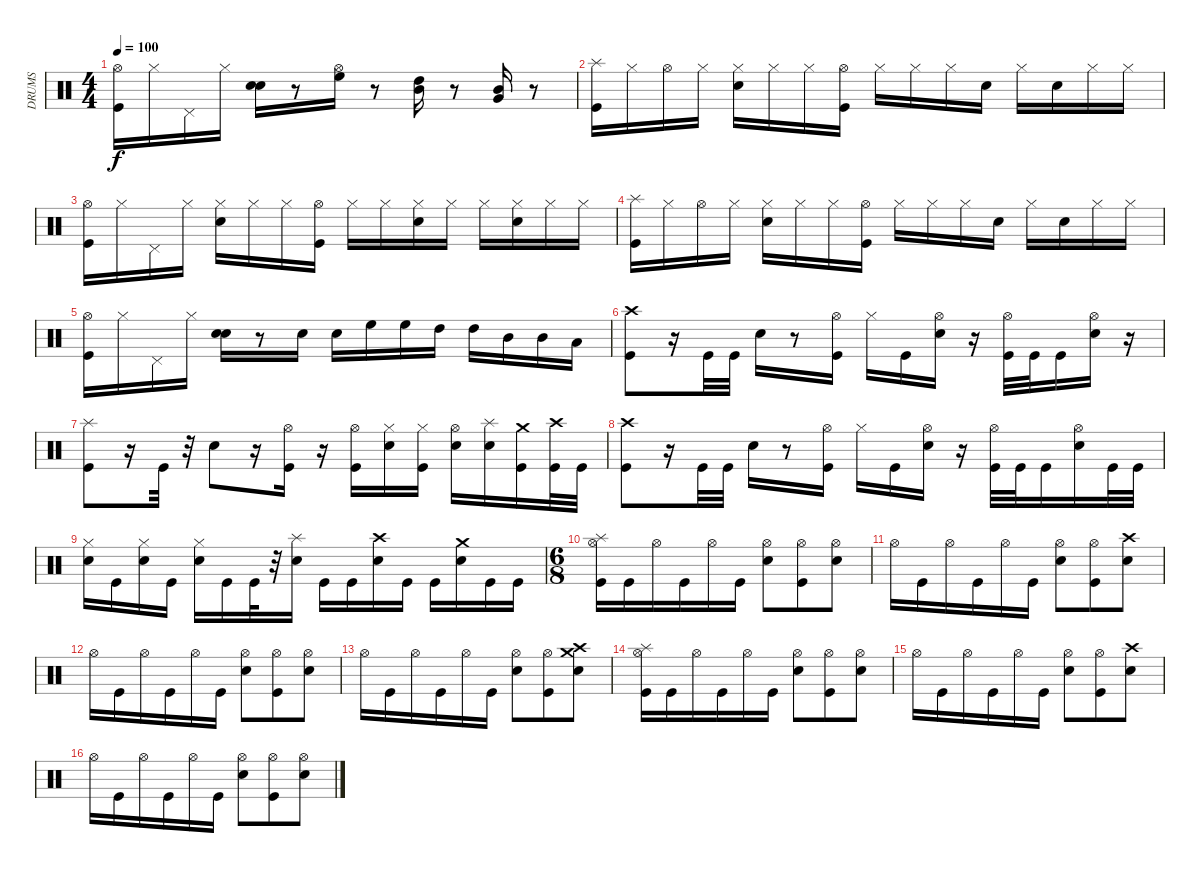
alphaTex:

\track ("DRUMS" "DRUMS") {instrument percussion}
\staff {score}
\articulation defaults
\ts (4 4)
\tempo 100
\clef neutral
\ks c
("Hi-Hat (open)" "Kick (hit)").16{dy f} "Hi-Hat (closed)".16 "Pedal Hi-Hat (hit)".16 "Hi-Hat (closed)".16 ("Snare (hit) 2" "Electric Snare (hit)").16 r.8 ("High Floor Tom (hit)" "Hi-Hat (open)").16 r.8 ("Mid Tom (hit)" "High Tom (hit)").16 r.8 ("Very Low Tom (hit)" "Mid Tom (hit)").16 r.8 |
("Splash (hit)" "Kick (hit)").16 "Hi-Hat (closed)".16 "Hi-Hat (open)".16 "Hi-Hat (closed)".16 ("Hi-Hat (closed)" "Snare (hit) 2").16 "Hi-Hat (closed)".16 "Hi-Hat (closed)".16 ("Hi-Hat (open)" "Kick (hit)").16 "Hi-Hat (closed)".16 "Hi-Hat (closed)".16 "Hi-Hat (closed)".16 "Snare (hit) 2".16 "Hi-Hat (closed)".16 "Snare (hit) 2".16 "Hi-Hat (closed)".16 "Hi-Hat (closed)".16 |
("Hi-Hat (open)" "Kick (hit)").16 "Hi-Hat (closed)".16 "Pedal Hi-Hat (hit)".16 "Hi-Hat (closed)".16 ("Snare (hit) 2" "Hi-Hat (closed)").16 "Hi-Hat (closed)".16 "Hi-Hat (closed)".16 ("Kick (hit)" "Hi-Hat (open)").16 "Hi-Hat (closed)".16 "Hi-Hat (closed)".16 ("Snare (hit) 2" "Hi-Hat (closed)").16 "Hi-Hat (closed)".16 "Hi-Hat (closed)".16 ("Snare (hit) 2" "Hi-Hat (closed)").16 "Hi-Hat (closed)".16 "Hi-Hat (closed)".16 |
("Splash (hit)" "Kick (hit)").16 "Hi-Hat (closed)".16 "Hi-Hat (open)".16 "Hi-Hat (closed)".16 ("Hi-Hat (closed)" "Snare (hit) 2").16 "Hi-Hat (closed)".16 "Hi-Hat (closed)".16 ("Hi-Hat (open)" "Kick (hit)").16 "Hi-Hat (closed)".16 "Hi-Hat (closed)".16 "Hi-Hat (closed)".16 "Snare (hit) 2".16 "Hi-Hat (closed)".16 "Snare (hit) 2".16 "Hi-Hat (closed)".16 "Hi-Hat (closed)".16 |
("Hi-Hat (open)" "Kick (hit)").16 "Hi-Hat (closed)".16 "Pedal Hi-Hat (hit)".16 "Hi-Hat (closed)".16 ("Snare (hit) 2" "Electric Snare (hit)").16 r.8 "Electric Snare (hit)".16 "Electric Snare (hit)".16 "High Floor Tom (hit)".16 "High Floor Tom (hit)".16 "High Tom (hit)".16 "High Tom (hit)".16 "Mid Tom (hit)".16 "Mid Tom (hit)".16 "Low Tom (hit)".16 |
("Crash high (hit)" "Kick (hit)").8 r.16 "Kick (hit)".32 "Kick (hit)".32 "Snare (hit) 2".16 r.8 ("Hi-Hat (open)" "Kick (hit)").16 "Hi-Hat (closed)".16 "Kick (hit)".16 ("Hi-Hat (open)" "Snare (hit) 2").16 r.16 ("Hi-Hat (open)" "Kick (hit)").32 "Kick (hit)".32 "Kick (hit)".16 ("Hi-Hat (open)" "Snare (hit) 2").16 r.16 |
("Splash (hit)" "Kick (hit)").8 r.16 "Kick (hit)".32 r.32 "Snare (hit) 2".8 r.16 ("Hi-Hat (open)" "Kick (hit)").16 r.16 ("Hi-Hat (open)" "Kick (hit)").16 ("Hi-Hat (closed)" "Snare (hit) 2").16 ("Hi-Hat (closed)" "Kick (hit)").16 ("Hi-Hat (open)" "Snare (hit) 2").16 ("Splash (hit)" "Snare (hit) 2").16 ("Crash medium (hit)" "Kick (hit)").16 ("Crash high (hit)" "Kick (hit)").32 "Kick (hit)".32 |
("Crash high (hit)" "Kick (hit)").8 r.16 "Kick (hit)".32 "Kick (hit)".32 "Snare (hit) 2".16 r.8 ("Hi-Hat (open)" "Kick (hit)").16 "Hi-Hat (closed)".16 "Kick (hit)".16 ("Hi-Hat (open)" "Snare (hit) 2").16 r.16 ("Hi-Hat (open)" "Kick (hit)").32 "Kick (hit)".32 "Kick (hit)".16 ("Hi-Hat (open)" "Snare (hit) 2").16 "Kick (hit)".32 "Kick (hit)".32 |
("Hi-Hat (closed)" "Snare (hit) 2").16 "Kick (hit)".16 ("Hi-Hat (closed)" "Snare (hit) 2").16 "Kick (hit)".16 ("Hi-Hat (closed)" "Snare (hit) 2").16 "Kick (hit)".16 "Kick (hit)".32 r.32 ("Splash (hit)" "Snare (hit) 2").16 "Kick (hit)".16 "Kick (hit)".16 ("Crash high (hit)" "Snare (hit) 2").16 "Kick (hit)".16 "Kick (hit)".16 ("Crash medium (hit)" "Snare (hit) 2").16 "Kick (hit)".16 "Kick (hit)".16 |
\ts (6 8)
("Kick (hit)" "Splash (hit)" "Hi-Hat (open)").16 "Kick (hit)".16 "Hi-Hat (open)".16 "Kick (hit)".16 "Hi-Hat (open)".16 "Kick (hit)".16 ("Snare (hit) 2" "Hi-Hat (open)").8 ("Kick (hit)" "Hi-Hat (open)").8 ("Snare (hit) 2" "Hi-Hat (open)").8 |
"Hi-Hat (open)".16 "Kick (hit)".16 "Hi-Hat (open)".16 "Kick (hit)".16 "Hi-Hat (open)".16 "Kick (hit)".16 ("Snare (hit) 2" "Hi-Hat (open)").8 ("Kick (hit)" "Hi-Hat (open)").8 ("Snare (hit) 2" "Crash high (hit)").8 |
"Hi-Hat (open)".16 "Kick (hit)".16 "Hi-Hat (open)".16 "Kick (hit)".16 "Hi-Hat (open)".16 "Kick (hit)".16 ("Snare (hit) 2" "Hi-Hat (open)").8 ("Kick (hit)" "Hi-Hat (open)").8 ("Snare (hit) 2" "Hi-Hat (open)").8 |
"Hi-Hat (open)".16 "Kick (hit)".16 "Hi-Hat (open)".16 "Kick (hit)".16 "Hi-Hat (open)".16 "Kick (hit)".16 ("Snare (hit) 2" "Hi-Hat (open)").8 ("Kick (hit)" "Hi-Hat (open)").8 ("Crash medium (hit)" "Snare (hit) 2" "Crash high (hit)").8 |
("Kick (hit)" "Splash (hit)" "Hi-Hat (open)").16 "Kick (hit)".16 "Hi-Hat (open)".16 "Kick (hit)".16 "Hi-Hat (open)".16 "Kick (hit)".16 ("Snare (hit) 2" "Hi-Hat (open)").8 ("Kick (hit)" "Hi-Hat (open)").8 ("Snare (hit) 2" "Hi-Hat (open)").8 |
"Hi-Hat (open)".16 "Kick (hit)".16 "Hi-Hat (open)".16 "Kick (hit)".16 "Hi-Hat (open)".16 "Kick (hit)".16 ("Snare (hit) 2" "Hi-Hat (open)").8 ("Kick (hit)" "Hi-Hat (open)").8 ("Snare (hit) 2" "Crash high (hit)").8 |
"Hi-Hat (open)".16 "Kick (hit)".16 "Hi-Hat (open)".16 "Kick (hit)".16 "Hi-Hat (open)".16 "Kick (hit)".16 ("Snare (hit) 2" "Hi-Hat (open)").8 ("Kick (hit)" "Hi-Hat (open)").8 ("Snare (hit) 2" "Hi-Hat (open)").8
